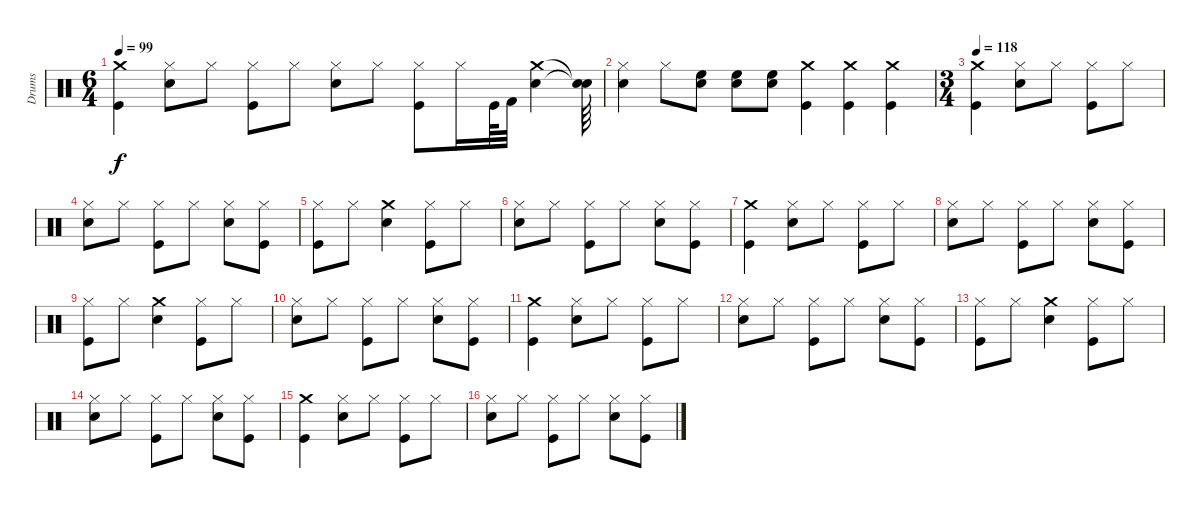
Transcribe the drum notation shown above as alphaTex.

\track ("Drums" "Drums") {instrument percussion}
\staff {score}
\articulation defaults
\ts (6 4)
\tempo 99
\clef neutral
\ks c
("Crash medium (hit)" "Kick (hit)").4{dy f} ("Hi-Hat (closed)" "Snare (hit) 2").8 "Hi-Hat (closed)".8 ("Hi-Hat (closed)" "Kick (hit)").8 "Hi-Hat (closed)".8 ("Snare (hit) 2" "Hi-Hat (closed)").8 "Hi-Hat (closed)".8 ("Hi-Hat (closed)" "Kick (hit)").8 "Hi-Hat (closed)".16 "Kick (hit)".64 "Kick (hit) 2".32 ("Crash medium (hit)" "Snare (hit) 2").4 ("Snare (hit)"{t} "Snare (hit)"{t}).64 |
("Hi-Hat (closed)" "Snare (hit) 2").4 "Hi-Hat (closed)".8 ("High Floor Tom (hit)" "Snare (hit) 2").8 ("High Floor Tom (hit)" "Snare (hit) 2").8 ("High Floor Tom (hit)" "Snare (hit) 2").8 ("Kick (hit)" "Crash medium (hit)").4 ("Kick (hit)" "Crash medium (hit)").4 ("Kick (hit)" "Crash medium (hit)").4 |
\ts (3 4)
\tempo 118
("Kick (hit)" "Crash medium (hit)").4 ("Snare (hit) 2" "Hi-Hat (closed)").8 "Hi-Hat (closed)".8 ("Hi-Hat (closed)" "Kick (hit)").8 "Hi-Hat (closed)".8 |
("Snare (hit) 2" "Hi-Hat (closed)").8 "Hi-Hat (closed)".8 ("Hi-Hat (closed)" "Kick (hit)").8 "Hi-Hat (closed)".8 ("Snare (hit) 2" "Hi-Hat (closed)").8 ("Kick (hit)" "Hi-Hat (closed)").8 |
("Hi-Hat (closed)" "Kick (hit)").8 "Hi-Hat (closed)".8 ("Crash medium (hit)" "Snare (hit) 2").4 ("Hi-Hat (closed)" "Kick (hit)").8 "Hi-Hat (closed)".8 |
("Hi-Hat (closed)" "Snare (hit) 2").8 "Hi-Hat (closed)".8 ("Hi-Hat (closed)" "Kick (hit)").8 "Hi-Hat (closed)".8 ("Hi-Hat (closed)" "Snare (hit) 2").8 ("Kick (hit)" "Hi-Hat (closed)").8 |
("Kick (hit)" "Crash medium (hit)").4 ("Snare (hit) 2" "Hi-Hat (closed)").8 "Hi-Hat (closed)".8 ("Hi-Hat (closed)" "Kick (hit)").8 "Hi-Hat (closed)".8 |
("Snare (hit) 2" "Hi-Hat (closed)").8 "Hi-Hat (closed)".8 ("Hi-Hat (closed)" "Kick (hit)").8 "Hi-Hat (closed)".8 ("Snare (hit) 2" "Hi-Hat (closed)").8 ("Kick (hit)" "Hi-Hat (closed)").8 |
("Hi-Hat (closed)" "Kick (hit)").8 "Hi-Hat (closed)".8 ("Crash medium (hit)" "Snare (hit) 2").4 ("Hi-Hat (closed)" "Kick (hit)").8 "Hi-Hat (closed)".8 |
("Hi-Hat (closed)" "Snare (hit) 2").8 "Hi-Hat (closed)".8 ("Hi-Hat (closed)" "Kick (hit)").8 "Hi-Hat (closed)".8 ("Hi-Hat (closed)" "Snare (hit) 2").8 ("Kick (hit)" "Hi-Hat (closed)").8 |
("Kick (hit)" "Crash medium (hit)").4 ("Snare (hit) 2" "Hi-Hat (closed)").8 "Hi-Hat (closed)".8 ("Hi-Hat (closed)" "Kick (hit)").8 "Hi-Hat (closed)".8 |
("Snare (hit) 2" "Hi-Hat (closed)").8 "Hi-Hat (closed)".8 ("Hi-Hat (closed)" "Kick (hit)").8 "Hi-Hat (closed)".8 ("Snare (hit) 2" "Hi-Hat (closed)").8 ("Kick (hit)" "Hi-Hat (closed)").8 |
("Hi-Hat (closed)" "Kick (hit)").8 "Hi-Hat (closed)".8 ("Crash medium (hit)" "Snare (hit) 2").4 ("Hi-Hat (closed)" "Kick (hit)").8 "Hi-Hat (closed)".8 |
("Hi-Hat (closed)" "Snare (hit) 2").8 "Hi-Hat (closed)".8 ("Hi-Hat (closed)" "Kick (hit)").8 "Hi-Hat (closed)".8 ("Hi-Hat (closed)" "Snare (hit) 2").8 ("Kick (hit)" "Hi-Hat (closed)").8 |
("Kick (hit)" "Crash medium (hit)").4 ("Snare (hit) 2" "Hi-Hat (closed)").8 "Hi-Hat (closed)".8 ("Hi-Hat (closed)" "Kick (hit)").8 "Hi-Hat (closed)".8 |
("Snare (hit) 2" "Hi-Hat (closed)").8 "Hi-Hat (closed)".8 ("Hi-Hat (closed)" "Kick (hit)").8 "Hi-Hat (closed)".8 ("Snare (hit) 2" "Hi-Hat (closed)").8 ("Kick (hit)" "Hi-Hat (closed)").8
